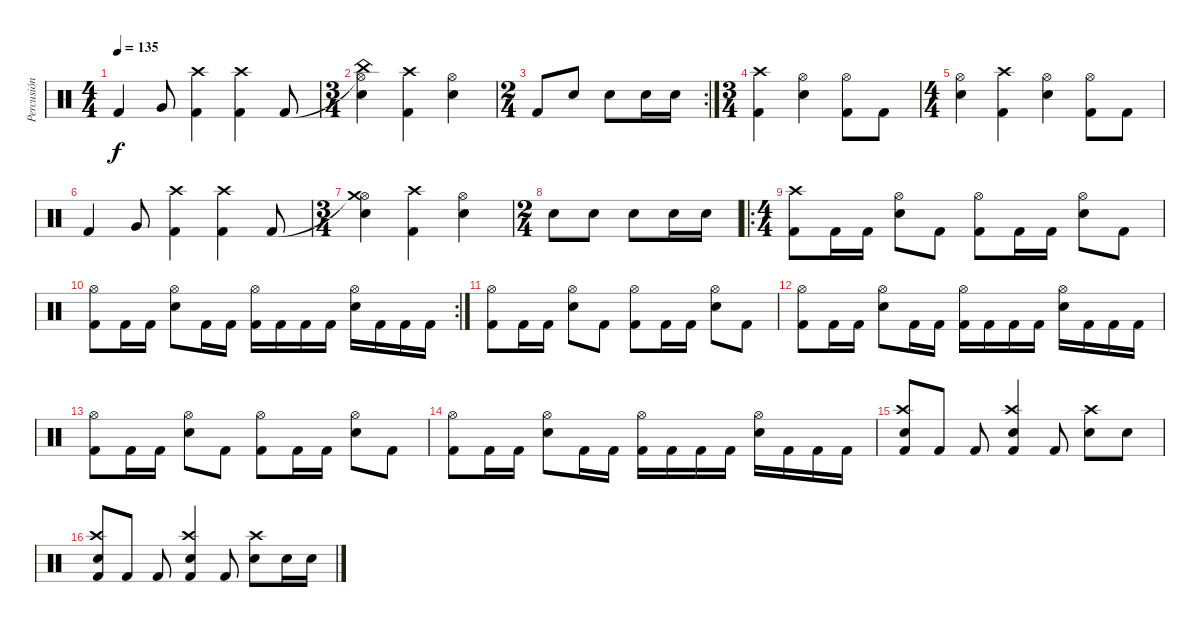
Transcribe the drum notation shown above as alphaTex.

\track ("Percusión" "Percusión") {instrument percussion}
\staff {score}
\articulation defaults
\ts (4 4)
\tempo 135
\clef neutral
\ks c "Kick (hit) 2".4{dy f} "Very Low Tom (hit)".8
("Crash high (hit)" "Kick (hit) 2").4 ("Crash high (hit)" "Kick (hit) 2").4 "Kick (hit) 2".8 |
\ts (3 4)
("Hi-Hat (open)"{t} "China (hit)" "Electric Snare (hit)").4 ("Crash high (hit)" "Kick (hit) 2").4 ("Hi-Hat (open)" "Electric Snare (hit)").4 |
\rc 2
\ts (2 4)
"Kick (hit) 2".8 "Electric Snare (hit)".8 "Electric Snare (hit)".8 "Electric Snare (hit)".16 "Electric Snare (hit)".16 |
\ts (3 4)
("Crash high (hit)" "Kick (hit) 2").4 ("Hi-Hat (open)" "Electric Snare (hit)").4 ("Hi-Hat (open)" "Kick (hit) 2").8 "Kick (hit) 2".8 |
\ts (4 4)
("Hi-Hat (open)" "Electric Snare (hit)").4 ("Crash high (hit)" "Kick (hit) 2").4 ("Hi-Hat (open)" "Electric Snare (hit)").4 ("Hi-Hat (open)" "Kick (hit) 2").8 "Kick (hit) 2".8 |
"Kick (hit) 2".4 "Very Low Tom (hit)".8 ("Crash high (hit)" "Kick (hit) 2").4 ("Crash high (hit)" "Kick (hit) 2").4 "Kick (hit) 2".8 |
\ts (3 4)
("Hi-Hat (open)"{t} "Crash medium (hit)" "Electric Snare (hit)").4 ("Crash high (hit)" "Kick (hit) 2").4 ("Hi-Hat (open)" "Electric Snare (hit)").4 |
\ts (2 4)
"Electric Snare (hit)".8 "Electric Snare (hit)".8 "Electric Snare (hit)".8 "Electric Snare (hit)".16 "Electric Snare (hit)".16 |
\ro
\ts (4 4)
("Crash high (hit)" "Kick (hit) 2").8 "Kick (hit) 2".16 "Kick (hit) 2".16 ("Hi-Hat (open)" "Electric Snare (hit)").8 "Kick (hit) 2".8 ("Hi-Hat (open)" "Kick (hit) 2").8 "Kick (hit) 2".16 "Kick (hit) 2".16 ("Hi-Hat (open)" "Electric Snare (hit)").8 "Kick (hit) 2".8 |
\rc 2
("Hi-Hat (open)" "Kick (hit) 2").8 "Kick (hit) 2".16 "Kick (hit) 2".16 ("Hi-Hat (open)" "Electric Snare (hit)").8 "Kick (hit) 2".16 "Kick (hit) 2".16 ("Hi-Hat (open)" "Kick (hit) 2").16 "Kick (hit) 2".16 "Kick (hit) 2".16 "Kick (hit) 2".16 ("Hi-Hat (open)" "Electric Snare (hit)").16 "Kick (hit) 2".16 "Kick (hit) 2".16 "Kick (hit) 2".16 |
("Hi-Hat (open)" "Kick (hit) 2").8 "Kick (hit) 2".16 "Kick (hit) 2".16 ("Hi-Hat (open)" "Electric Snare (hit)").8 "Kick (hit) 2".8 ("Hi-Hat (open)" "Kick (hit) 2").8 "Kick (hit) 2".16 "Kick (hit) 2".16 ("Hi-Hat (open)" "Electric Snare (hit)").8 "Kick (hit) 2".8 |
("Hi-Hat (open)" "Kick (hit) 2").8 "Kick (hit) 2".16 "Kick (hit) 2".16 ("Hi-Hat (open)" "Electric Snare (hit)").8 "Kick (hit) 2".16 "Kick (hit) 2".16 ("Hi-Hat (open)" "Kick (hit) 2").16 "Kick (hit) 2".16 "Kick (hit) 2".16 "Kick (hit) 2".16 ("Hi-Hat (open)" "Electric Snare (hit)").16 "Kick (hit) 2".16 "Kick (hit) 2".16 "Kick (hit) 2".16 |
("Hi-Hat (open)" "Kick (hit) 2").8 "Kick (hit) 2".16 "Kick (hit) 2".16 ("Hi-Hat (open)" "Electric Snare (hit)").8 "Kick (hit) 2".8 ("Hi-Hat (open)" "Kick (hit) 2").8 "Kick (hit) 2".16 "Kick (hit) 2".16 ("Hi-Hat (open)" "Electric Snare (hit)").8 "Kick (hit) 2".8 |
("Hi-Hat (open)" "Kick (hit) 2").8 "Kick (hit) 2".16 "Kick (hit) 2".16 ("Hi-Hat (open)" "Electric Snare (hit)").8 "Kick (hit) 2".16 "Kick (hit) 2".16 ("Hi-Hat (open)" "Kick (hit) 2").16 "Kick (hit) 2".16 "Kick (hit) 2".16 "Kick (hit) 2".16 ("Hi-Hat (open)" "Electric Snare (hit)").16 "Kick (hit) 2".16 "Kick (hit) 2".16 "Kick (hit) 2".16 |
("Crash high (hit)" "Electric Snare (hit)" "Kick (hit) 2").8 "Kick (hit) 2".8 "Kick (hit) 2".8 ("Crash high (hit)" "Electric Snare (hit)" "Kick (hit) 2").4 "Kick (hit) 2".8 ("Crash high (hit)" "Electric Snare (hit)").8 "Electric Snare (hit)".8 |
("Crash high (hit)" "Electric Snare (hit)" "Kick (hit) 2").8 "Kick (hit) 2".8 "Kick (hit) 2".8 ("Crash high (hit)" "Electric Snare (hit)" "Kick (hit) 2").4 "Kick (hit) 2".8 ("Crash high (hit)" "Electric Snare (hit)").8 "Electric Snare (hit)".16 "Electric Snare (hit)".16
